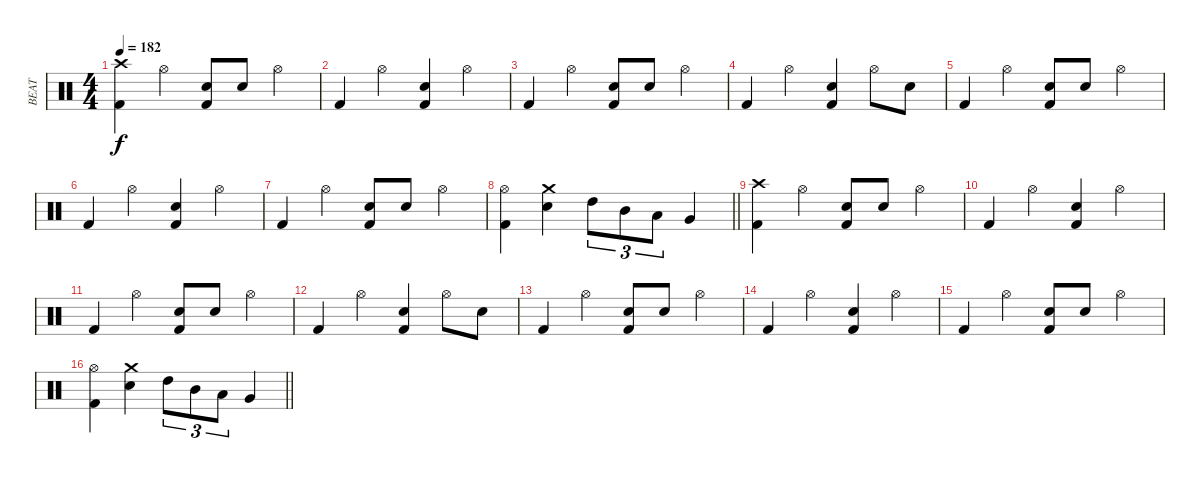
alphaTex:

\track ("BEAT" "BEAT") {instrument percussion}
\staff {score}
\articulation defaults
\ts (4 4)
\tempo 182
\clef neutral
\ks c
("Crash high (hit)" "Kick (hit) 2").4{dy f} "Hi-Hat (open)".4 ("Electric Snare (hit)" "Kick (hit) 2").8 "Electric Snare (hit)".8 "Hi-Hat (open)".4 |
"Kick (hit) 2".4 "Hi-Hat (open)".4 ("Electric Snare (hit)" "Kick (hit) 2").4 "Hi-Hat (open)".4 |
"Kick (hit) 2".4 "Hi-Hat (open)".4 ("Electric Snare (hit)" "Kick (hit) 2").8 "Electric Snare (hit)".8 "Hi-Hat (open)".4 |
"Kick (hit) 2".4 "Hi-Hat (open)".4 ("Electric Snare (hit)" "Kick (hit) 2").4 "Hi-Hat (open)".8 "Electric Snare (hit)".8 |
"Kick (hit) 2".4 "Hi-Hat (open)".4 ("Electric Snare (hit)" "Kick (hit) 2").8 "Electric Snare (hit)".8 "Hi-Hat (open)".4 |
"Kick (hit) 2".4 "Hi-Hat (open)".4 ("Electric Snare (hit)" "Kick (hit) 2").4 "Hi-Hat (open)".4 |
"Kick (hit) 2".4 "Hi-Hat (open)".4 ("Electric Snare (hit)" "Kick (hit) 2").8 "Electric Snare (hit)".8 "Hi-Hat (open)".4 |
\barLineRight lightlight
("Hi-Hat (open)" "Kick (hit) 2").4 ("Crash medium (hit)" "Electric Snare (hit)").4 "High Tom (hit)".8{tu (3 2)} "Mid Tom (hit)".8{tu (3 2)} "Low Tom (hit)".8{tu (3 2)} "Very Low Tom (hit)".4 |
("Crash high (hit)" "Kick (hit) 2").4 "Hi-Hat (open)".4 ("Electric Snare (hit)" "Kick (hit) 2").8 "Electric Snare (hit)".8 "Hi-Hat (open)".4 |
"Kick (hit) 2".4 "Hi-Hat (open)".4 ("Electric Snare (hit)" "Kick (hit) 2").4 "Hi-Hat (open)".4 |
"Kick (hit) 2".4 "Hi-Hat (open)".4 ("Electric Snare (hit)" "Kick (hit) 2").8 "Electric Snare (hit)".8 "Hi-Hat (open)".4 |
"Kick (hit) 2".4 "Hi-Hat (open)".4 ("Electric Snare (hit)" "Kick (hit) 2").4 "Hi-Hat (open)".8 "Electric Snare (hit)".8 |
"Kick (hit) 2".4 "Hi-Hat (open)".4 ("Electric Snare (hit)" "Kick (hit) 2").8 "Electric Snare (hit)".8 "Hi-Hat (open)".4 |
"Kick (hit) 2".4 "Hi-Hat (open)".4 ("Electric Snare (hit)" "Kick (hit) 2").4 "Hi-Hat (open)".4 |
"Kick (hit) 2".4 "Hi-Hat (open)".4 ("Electric Snare (hit)" "Kick (hit) 2").8 "Electric Snare (hit)".8 "Hi-Hat (open)".4 |
\barLineRight lightlight
("Hi-Hat (open)" "Kick (hit) 2").4 ("Crash medium (hit)" "Electric Snare (hit)").4 "High Tom (hit)".8{tu (3 2)} "Mid Tom (hit)".8{tu (3 2)} "Low Tom (hit)".8{tu (3 2)} "Very Low Tom (hit)".4
